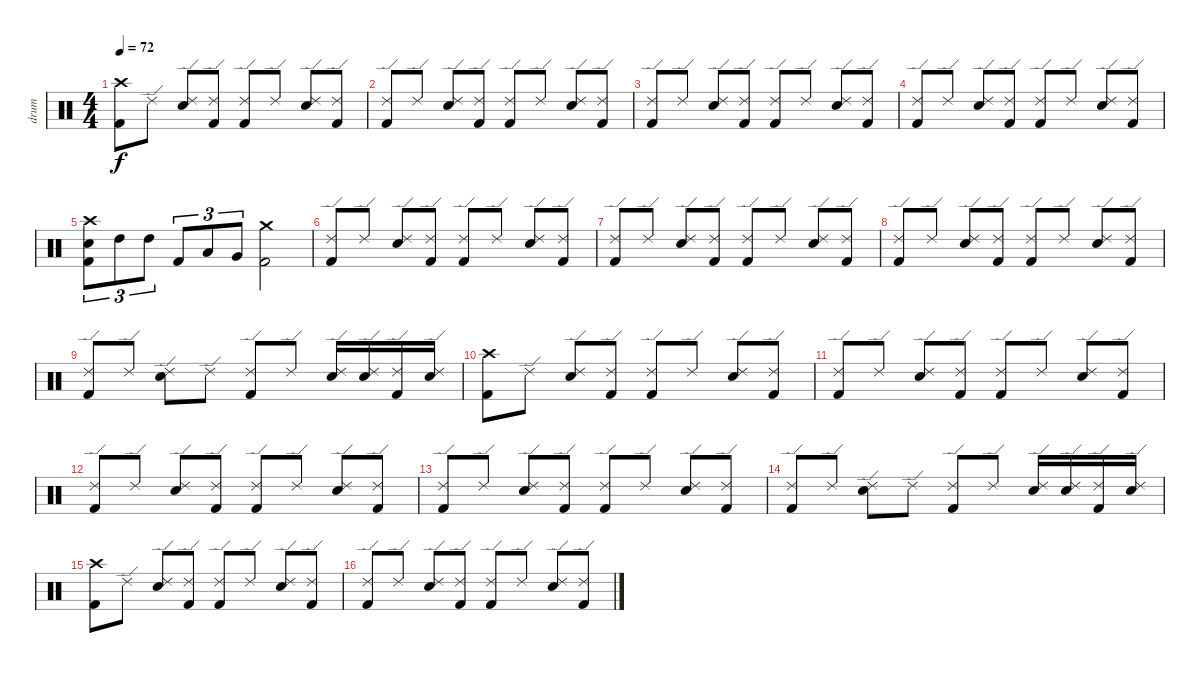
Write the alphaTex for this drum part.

\track ("drum" "drum") {instrument percussion}
\staff {score}
\articulation defaults
\ts (4 4)
\tempo 72
\clef neutral
\ks c
("Crash high (hit)" "Kick (hit) 2").8{dy f} "Ride (edge) 2".8 ("Ride (edge) 2" "Snare (hit) 2").8 ("Ride (edge) 2" "Kick (hit) 2").8 ("Ride (edge) 2" "Kick (hit) 2").8 "Ride (edge) 2".8 ("Ride (edge) 2" "Snare (hit) 2").8 ("Ride (edge) 2" "Kick (hit) 2").8 |
("Ride (edge) 2" "Kick (hit) 2").8 "Ride (edge) 2".8 ("Ride (edge) 2" "Snare (hit) 2").8 ("Ride (edge) 2" "Kick (hit) 2").8 ("Ride (edge) 2" "Kick (hit) 2").8 "Ride (edge) 2".8 ("Ride (edge) 2" "Snare (hit) 2").8 ("Ride (edge) 2" "Kick (hit) 2").8 |
("Ride (edge) 2" "Kick (hit) 2").8 "Ride (edge) 2".8 ("Ride (edge) 2" "Snare (hit) 2").8 ("Ride (edge) 2" "Kick (hit) 2").8 ("Ride (edge) 2" "Kick (hit) 2").8 "Ride (edge) 2".8 ("Ride (edge) 2" "Snare (hit) 2").8 ("Ride (edge) 2" "Kick (hit) 2").8 |
("Ride (edge) 2" "Kick (hit) 2").8 "Ride (edge) 2".8 ("Ride (edge) 2" "Snare (hit) 2").8 ("Ride (edge) 2" "Kick (hit) 2").8 ("Ride (edge) 2" "Kick (hit) 2").8 "Ride (edge) 2".8 ("Ride (edge) 2" "Snare (hit) 2").8 ("Ride (edge) 2" "Kick (hit) 2").8 |
("Crash high (hit)" "Snare (hit) 2" "Kick (hit) 2").8{tu (3 2)} "High Tom (hit)".8{tu (3 2)} "High Tom (hit)".8{tu (3 2)} "Kick (hit) 2".8{tu (3 2)} "Low Tom (hit)".8{tu (3 2)} "Very Low Tom (hit)".8{tu (3 2)} ("Crash medium (hit)" "Kick (hit) 2").2 |
("Ride (edge) 2" "Kick (hit) 2").8 "Ride (edge) 2".8 ("Ride (edge) 2" "Snare (hit) 2").8 ("Ride (edge) 2" "Kick (hit) 2").8 ("Ride (edge) 2" "Kick (hit) 2").8 "Ride (edge) 2".8 ("Ride (edge) 2" "Snare (hit) 2").8 ("Ride (edge) 2" "Kick (hit) 2").8 |
("Ride (edge) 2" "Kick (hit) 2").8 "Ride (edge) 2".8 ("Ride (edge) 2" "Snare (hit) 2").8 ("Ride (edge) 2" "Kick (hit) 2").8 ("Ride (edge) 2" "Kick (hit) 2").8 "Ride (edge) 2".8 ("Ride (edge) 2" "Snare (hit) 2").8 ("Ride (edge) 2" "Kick (hit) 2").8 |
("Ride (edge) 2" "Kick (hit) 2").8 "Ride (edge) 2".8 ("Ride (edge) 2" "Snare (hit) 2").8 ("Ride (edge) 2" "Kick (hit) 2").8 ("Ride (edge) 2" "Kick (hit) 2").8 "Ride (edge) 2".8 ("Ride (edge) 2" "Snare (hit) 2").8 ("Ride (edge) 2" "Kick (hit) 2").8 |
("Ride (edge) 2" "Kick (hit) 2").8 "Ride (edge) 2".8 ("Ride (edge) 2" "Snare (hit) 2").8 "Ride (edge) 2".8 ("Ride (edge) 2" "Kick (hit) 2").8 "Ride (edge) 2".8 ("Ride (edge) 2" "Snare (hit) 2").16 ("Ride (edge) 2" "Snare (hit) 2").16 ("Ride (edge) 2" "Kick (hit) 2").16 ("Ride (edge) 2" "Snare (hit) 2").16 |
("Crash high (hit)" "Kick (hit) 2").8 "Ride (edge) 2".8 ("Ride (edge) 2" "Snare (hit) 2").8 ("Ride (edge) 2" "Kick (hit) 2").8 ("Ride (edge) 2" "Kick (hit) 2").8 "Ride (edge) 2".8 ("Ride (edge) 2" "Snare (hit) 2").8 ("Ride (edge) 2" "Kick (hit) 2").8 |
("Ride (edge) 2" "Kick (hit) 2").8 "Ride (edge) 2".8 ("Ride (edge) 2" "Snare (hit) 2").8 ("Ride (edge) 2" "Kick (hit) 2").8 ("Ride (edge) 2" "Kick (hit) 2").8 "Ride (edge) 2".8 ("Ride (edge) 2" "Snare (hit) 2").8 ("Ride (edge) 2" "Kick (hit) 2").8 |
("Ride (edge) 2" "Kick (hit) 2").8 "Ride (edge) 2".8 ("Ride (edge) 2" "Snare (hit) 2").8 ("Ride (edge) 2" "Kick (hit) 2").8 ("Ride (edge) 2" "Kick (hit) 2").8 "Ride (edge) 2".8 ("Ride (edge) 2" "Snare (hit) 2").8 ("Ride (edge) 2" "Kick (hit) 2").8 |
("Ride (edge) 2" "Kick (hit) 2").8 "Ride (edge) 2".8 ("Ride (edge) 2" "Snare (hit) 2").8 ("Ride (edge) 2" "Kick (hit) 2").8 ("Ride (edge) 2" "Kick (hit) 2").8 "Ride (edge) 2".8 ("Ride (edge) 2" "Snare (hit) 2").8 ("Ride (edge) 2" "Kick (hit) 2").8 |
("Ride (edge) 2" "Kick (hit) 2").8 "Ride (edge) 2".8 ("Ride (edge) 2" "Snare (hit) 2").8 "Ride (edge) 2".8 ("Ride (edge) 2" "Kick (hit) 2").8 "Ride (edge) 2".8 ("Ride (edge) 2" "Snare (hit) 2").16 ("Ride (edge) 2" "Snare (hit) 2").16 ("Ride (edge) 2" "Kick (hit) 2").16 ("Ride (edge) 2" "Snare (hit) 2").16 |
("Crash high (hit)" "Kick (hit) 2").8 "Ride (edge) 2".8 ("Ride (edge) 2" "Snare (hit) 2").8 ("Ride (edge) 2" "Kick (hit) 2").8 ("Ride (edge) 2" "Kick (hit) 2").8 "Ride (edge) 2".8 ("Ride (edge) 2" "Snare (hit) 2").8 ("Ride (edge) 2" "Kick (hit) 2").8 |
("Ride (edge) 2" "Kick (hit) 2").8 "Ride (edge) 2".8 ("Ride (edge) 2" "Snare (hit) 2").8 ("Ride (edge) 2" "Kick (hit) 2").8 ("Ride (edge) 2" "Kick (hit) 2").8 "Ride (edge) 2".8 ("Ride (edge) 2" "Snare (hit) 2").8 ("Ride (edge) 2" "Kick (hit) 2").8
